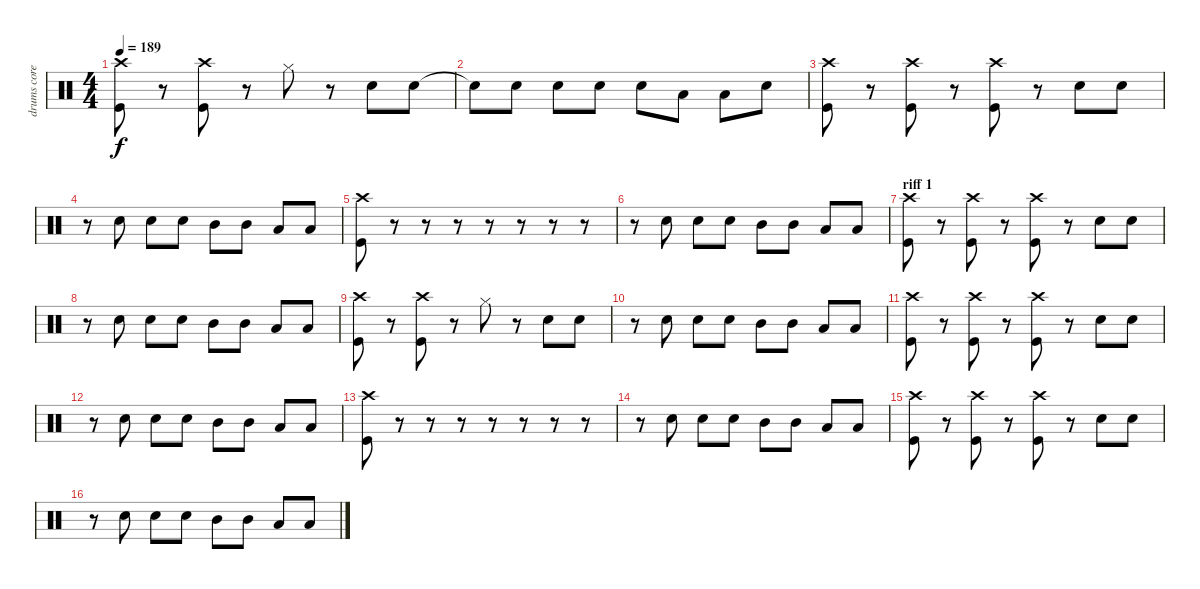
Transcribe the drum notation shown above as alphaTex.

\track ("drums core" "drums core") {instrument percussion}
\staff {score}
\articulation defaults
\ts (4 4)
\tempo 189
\clef neutral
\ks c
("Crash high (hit)" "Kick (hit)").8{dy f} r.8 ("Crash high (hit)" "Kick (hit)").8 r.8 "Hi-Hat (closed)".8 r.8 "Electric Snare (hit)".8 "Electric Snare (hit)".8 |
"Snare (hit)"{t}.8 "Electric Snare (hit)".8 "Electric Snare (hit)".8 "Electric Snare (hit)".8 "Electric Snare (hit)".8 "Low Tom (hit)".8 "Low Tom (hit)".8 "Electric Snare (hit)".8 |
("Crash high (hit)" "Kick (hit)").8 r.8 ("Crash high (hit)" "Kick (hit)").8 r.8 ("Crash high (hit)" "Kick (hit)").8 r.8 "Electric Snare (hit)".8 "Electric Snare (hit)".8 |
r.8 "Electric Snare (hit)".8 "Electric Snare (hit)".8 "Electric Snare (hit)".8 "Mid Tom (hit)".8 "Mid Tom (hit)".8 "Low Tom (hit)".8 "Low Tom (hit)".8 |
("Crash high (hit)" "Kick (hit)").8 r.8 r.8 r.8 r.8 r.8 r.8 r.8 |
r.8 "Electric Snare (hit)".8 "Electric Snare (hit)".8 "Electric Snare (hit)".8 "Mid Tom (hit)".8 "Mid Tom (hit)".8 "Low Tom (hit)".8 "Low Tom (hit)".8 |
\section ("" "riff 1")
("Crash high (hit)" "Kick (hit)").8 r.8 ("Crash high (hit)" "Kick (hit)").8 r.8 ("Crash high (hit)" "Kick (hit)").8 r.8 "Electric Snare (hit)".8 "Electric Snare (hit)".8 |
r.8 "Electric Snare (hit)".8 "Electric Snare (hit)".8 "Electric Snare (hit)".8 "Mid Tom (hit)".8 "Mid Tom (hit)".8 "Low Tom (hit)".8 "Low Tom (hit)".8 |
("Crash high (hit)" "Kick (hit)").8 r.8 ("Crash high (hit)" "Kick (hit)").8 r.8 "Hi-Hat (closed)".8 r.8 "Electric Snare (hit)".8 "Electric Snare (hit)".8 |
r.8 "Electric Snare (hit)".8 "Electric Snare (hit)".8 "Electric Snare (hit)".8 "Mid Tom (hit)".8 "Mid Tom (hit)".8 "Low Tom (hit)".8 "Low Tom (hit)".8 |
("Crash high (hit)" "Kick (hit)").8 r.8 ("Crash high (hit)" "Kick (hit)").8 r.8 ("Crash high (hit)" "Kick (hit)").8 r.8 "Electric Snare (hit)".8 "Electric Snare (hit)".8 |
r.8 "Electric Snare (hit)".8 "Electric Snare (hit)".8 "Electric Snare (hit)".8 "Mid Tom (hit)".8 "Mid Tom (hit)".8 "Low Tom (hit)".8 "Low Tom (hit)".8 |
("Crash high (hit)" "Kick (hit)").8 r.8 r.8 r.8 r.8 r.8 r.8 r.8 |
r.8 "Electric Snare (hit)".8 "Electric Snare (hit)".8 "Electric Snare (hit)".8 "Mid Tom (hit)".8 "Mid Tom (hit)".8 "Low Tom (hit)".8 "Low Tom (hit)".8 |
("Crash high (hit)" "Kick (hit)").8 r.8 ("Crash high (hit)" "Kick (hit)").8 r.8 ("Crash high (hit)" "Kick (hit)").8 r.8 "Electric Snare (hit)".8 "Electric Snare (hit)".8 |
r.8 "Electric Snare (hit)".8 "Electric Snare (hit)".8 "Electric Snare (hit)".8 "Mid Tom (hit)".8 "Mid Tom (hit)".8 "Low Tom (hit)".8 "Low Tom (hit)".8
